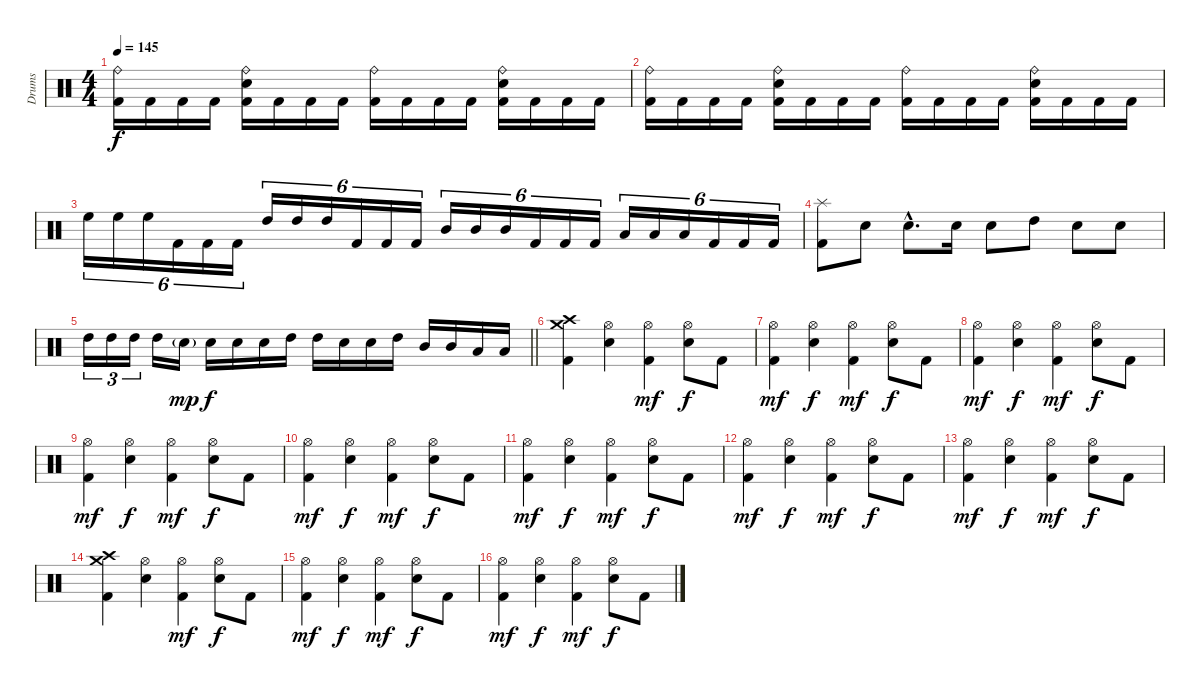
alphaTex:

\track ("Drums" "Drums") {instrument percussion}
\staff {score}
\articulation defaults
\ts (4 4)
\tempo 145
\clef neutral
\ks c
("Ride (bell)" "Kick (hit) 2").16{dy f} "Kick (hit) 2".16 "Kick (hit) 2".16 "Kick (hit) 2".16 ("Ride (bell)" "Electric Snare (hit)" "Kick (hit) 2").16 "Kick (hit) 2".16 "Kick (hit) 2".16 "Kick (hit) 2".16 ("Ride (bell)" "Kick (hit) 2").16 "Kick (hit) 2".16 "Kick (hit) 2".16 "Kick (hit) 2".16 ("Ride (bell)" "Electric Snare (hit)" "Kick (hit) 2").16 "Kick (hit) 2".16 "Kick (hit) 2".16 "Kick (hit) 2".16 |
("Ride (bell)" "Kick (hit) 2").16 "Kick (hit) 2".16 "Kick (hit) 2".16 "Kick (hit) 2".16 ("Ride (bell)" "Electric Snare (hit)" "Kick (hit) 2").16 "Kick (hit) 2".16 "Kick (hit) 2".16 "Kick (hit) 2".16 ("Ride (bell)" "Kick (hit) 2").16 "Kick (hit) 2".16 "Kick (hit) 2".16 "Kick (hit) 2".16 ("Ride (bell)" "Electric Snare (hit)" "Kick (hit) 2").16 "Kick (hit) 2".16 "Kick (hit) 2".16 "Kick (hit) 2".16 |
"High Floor Tom (hit)".16{tu (6 4)} "High Floor Tom (hit)".16{tu (6 4)} "High Floor Tom (hit)".16{tu (6 4)} "Kick (hit) 2".16{tu (6 4)} "Kick (hit) 2".16{tu (6 4)} "Kick (hit) 2".16{tu (6 4)} "High Tom (hit)".16{tu (6 4)} "High Tom (hit)".16{tu (6 4)} "High Tom (hit)".16{tu (6 4)} "Kick (hit) 2".16{tu (6 4)} "Kick (hit) 2".16{tu (6 4)} "Kick (hit) 2".16{tu (6 4)} "Mid Tom (hit)".16{tu (6 4)} "Mid Tom (hit)".16{tu (6 4)} "Mid Tom (hit)".16{tu (6 4)} "Kick (hit) 2".16{tu (6 4)} "Kick (hit) 2".16{tu (6 4)} "Kick (hit) 2".16{tu (6 4)} "Low Tom (hit)".16{tu (6 4)} "Low Tom (hit)".16{tu (6 4)} "Low Tom (hit)".16{tu (6 4)} "Kick (hit) 2".16{tu (6 4)} "Kick (hit) 2".16{tu (6 4)} "Kick (hit) 2".16{tu (6 4)} |
("Splash (hit)" "Kick (hit) 2").8 "Electric Snare (hit)".8 "Electric Snare (hit)"{hac}.8{d} "Electric Snare (hit)".16 "Electric Snare (hit)".8 "High Tom (hit)".8 "Electric Snare (hit)".8 "Electric Snare (hit)".8 |
\barLineRight lightlight "High Tom (hit)".16{tu (3 2)} "High Tom (hit)".16{tu (3 2)} "High Tom (hit)".16{tu (3 2)} "High Tom (hit)".16 "Electric Snare (hit)"{g}.16{dy mp} "Electric Snare (hit)".16{dy f} "Electric Snare (hit)".16 "Electric Snare (hit)".16 "High Tom (hit)".16 "High Tom (hit)".16 "Electric Snare (hit)".16 "Electric Snare (hit)".16 "High Tom (hit)".16 "Mid Tom (hit)".16 "Mid Tom (hit)".16 "Low Tom (hit)".16 "Low Tom (hit)".16
|
("Crash high (hit)" "Crash medium (hit)" "Kick (hit) 2").4 ("Hi-Hat (open)" "Electric Snare (hit)").4 ("Hi-Hat (open)" "Kick (hit) 2").4{dy mf} ("Hi-Hat (open)" "Electric Snare (hit)").8{dy f} "Kick (hit) 2".8 |
("Hi-Hat (open)" "Kick (hit) 2").4{dy mf} ("Hi-Hat (open)" "Electric Snare (hit)").4{dy f} ("Hi-Hat (open)" "Kick (hit) 2").4{dy mf} ("Hi-Hat (open)" "Electric Snare (hit)").8{dy f} "Kick (hit) 2".8 |
("Hi-Hat (open)" "Kick (hit) 2").4{dy mf} ("Hi-Hat (open)" "Electric Snare (hit)").4{dy f} ("Hi-Hat (open)" "Kick (hit) 2").4{dy mf} ("Hi-Hat (open)" "Electric Snare (hit)").8{dy f} "Kick (hit) 2".8 |
("Hi-Hat (open)" "Kick (hit) 2").4{dy mf} ("Hi-Hat (open)" "Electric Snare (hit)").4{dy f} ("Hi-Hat (open)" "Kick (hit) 2").4{dy mf} ("Hi-Hat (open)" "Electric Snare (hit)").8{dy f} "Kick (hit) 2".8 |
("Hi-Hat (open)" "Kick (hit) 2").4{dy mf} ("Hi-Hat (open)" "Electric Snare (hit)").4{dy f} ("Hi-Hat (open)" "Kick (hit) 2").4{dy mf} ("Hi-Hat (open)" "Electric Snare (hit)").8{dy f} "Kick (hit) 2".8 |
("Hi-Hat (open)" "Kick (hit) 2").4{dy mf} ("Hi-Hat (open)" "Electric Snare (hit)").4{dy f} ("Hi-Hat (open)" "Kick (hit) 2").4{dy mf} ("Hi-Hat (open)" "Electric Snare (hit)").8{dy f} "Kick (hit) 2".8 |
("Hi-Hat (open)" "Kick (hit) 2").4{dy mf} ("Hi-Hat (open)" "Electric Snare (hit)").4{dy f} ("Hi-Hat (open)" "Kick (hit) 2").4{dy mf} ("Hi-Hat (open)" "Electric Snare (hit)").8{dy f} "Kick (hit) 2".8 |
("Hi-Hat (open)" "Kick (hit) 2").4{dy mf} ("Hi-Hat (open)" "Electric Snare (hit)").4{dy f} ("Hi-Hat (open)" "Kick (hit) 2").4{dy mf} ("Hi-Hat (open)" "Electric Snare (hit)").8{dy f} "Kick (hit) 2".8 |
("Crash high (hit)" "Crash medium (hit)" "Kick (hit) 2").4 ("Hi-Hat (open)" "Electric Snare (hit)").4 ("Hi-Hat (open)" "Kick (hit) 2").4{dy mf} ("Hi-Hat (open)" "Electric Snare (hit)").8{dy f} "Kick (hit) 2".8 |
("Hi-Hat (open)" "Kick (hit) 2").4{dy mf} ("Hi-Hat (open)" "Electric Snare (hit)").4{dy f} ("Hi-Hat (open)" "Kick (hit) 2").4{dy mf} ("Hi-Hat (open)" "Electric Snare (hit)").8{dy f} "Kick (hit) 2".8 |
("Hi-Hat (open)" "Kick (hit) 2").4{dy mf} ("Hi-Hat (open)" "Electric Snare (hit)").4{dy f} ("Hi-Hat (open)" "Kick (hit) 2").4{dy mf} ("Hi-Hat (open)" "Electric Snare (hit)").8{dy f} "Kick (hit) 2".8
